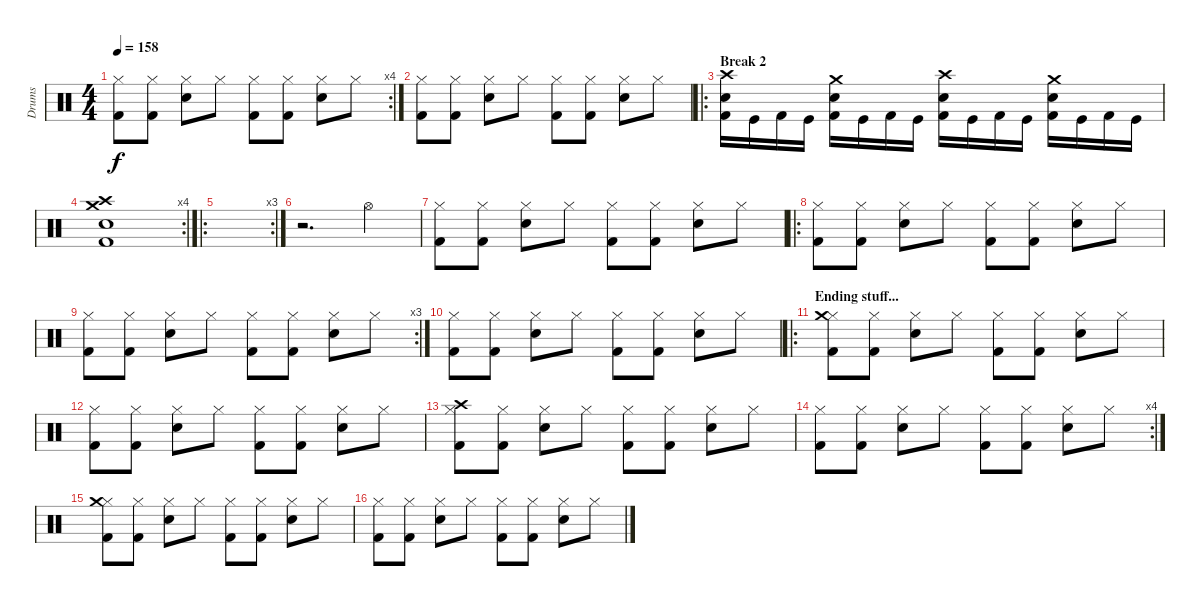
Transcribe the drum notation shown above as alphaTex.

\track ("Drums" "Drums") {instrument percussion}
\staff {score}
\articulation defaults
\rc 4
\ts (4 4)
\tempo 158
\clef neutral
\ks c
("Hi-Hat (closed)" "Kick (hit) 2").8{dy f} ("Hi-Hat (closed)" "Kick (hit) 2").8 ("Hi-Hat (closed)" "Snare (hit) 2").8 "Hi-Hat (closed)".8 ("Hi-Hat (closed)" "Kick (hit) 2").8 ("Hi-Hat (closed)" "Kick (hit) 2").8 ("Hi-Hat (closed)" "Snare (hit) 2").8 "Hi-Hat (closed)".8 |
("Hi-Hat (closed)" "Kick (hit) 2").8 ("Hi-Hat (closed)" "Kick (hit) 2").8 ("Hi-Hat (closed)" "Snare (hit) 2").8 "Hi-Hat (closed)".8 ("Hi-Hat (closed)" "Kick (hit) 2").8 ("Hi-Hat (closed)" "Kick (hit) 2").8 ("Hi-Hat (closed)" "Snare (hit) 2").8 "Hi-Hat (closed)".8 |
\ro
\section ("" "Break 2")
("Crash high (hit)" "Snare (hit) 2" "Kick (hit) 2").16 "Kick (hit)".16 "Kick (hit) 2".16 "Kick (hit)".16 ("Crash medium (hit)" "Snare (hit) 2" "Kick (hit) 2").16 "Kick (hit)".16 "Kick (hit) 2".16 "Kick (hit)".16 ("Crash high (hit)" "Snare (hit) 2" "Kick (hit) 2").16 "Kick (hit)".16 "Kick (hit) 2".16 "Kick (hit)".16 ("Crash medium (hit)" "Snare (hit) 2" "Kick (hit) 2").16 "Kick (hit)".16 "Kick (hit) 2".16 "Kick (hit)".16 |
\rc 4
("Crash high (hit)" "Crash medium (hit)" "Snare (hit) 2" "Kick (hit) 2").1 |
\ro
\rc 3
|
r.2{d} "Hi-Hat (open)".4 |
("Hi-Hat (closed)" "Kick (hit) 2").8 ("Hi-Hat (closed)" "Kick (hit) 2").8 ("Hi-Hat (closed)" "Snare (hit) 2").8 "Hi-Hat (closed)".8 ("Hi-Hat (closed)" "Kick (hit) 2").8 ("Hi-Hat (closed)" "Kick (hit) 2").8 ("Hi-Hat (closed)" "Snare (hit) 2").8 "Hi-Hat (closed)".8 |
\ro
("Hi-Hat (closed)" "Kick (hit) 2").8 ("Hi-Hat (closed)" "Kick (hit) 2").8 ("Hi-Hat (closed)" "Snare (hit) 2").8 "Hi-Hat (closed)".8 ("Hi-Hat (closed)" "Kick (hit) 2").8 ("Hi-Hat (closed)" "Kick (hit) 2").8 ("Hi-Hat (closed)" "Snare (hit) 2").8 "Hi-Hat (closed)".8 |
\rc 3
("Hi-Hat (closed)" "Kick (hit) 2").8 ("Hi-Hat (closed)" "Kick (hit) 2").8 ("Hi-Hat (closed)" "Snare (hit) 2").8 "Hi-Hat (closed)".8 ("Hi-Hat (closed)" "Kick (hit) 2").8 ("Hi-Hat (closed)" "Kick (hit) 2").8 ("Hi-Hat (closed)" "Snare (hit) 2").8 "Hi-Hat (closed)".8 |
("Hi-Hat (closed)" "Kick (hit) 2").8 ("Hi-Hat (closed)" "Kick (hit) 2").8 ("Hi-Hat (closed)" "Snare (hit) 2").8 "Hi-Hat (closed)".8 ("Hi-Hat (closed)" "Kick (hit) 2").8 ("Hi-Hat (closed)" "Kick (hit) 2").8 ("Hi-Hat (closed)" "Snare (hit) 2").8 "Hi-Hat (closed)".8 |
\ro
\section ("" "Ending stuff...")
("Hi-Hat (closed)" "Crash medium (hit)" "Kick (hit) 2").8 ("Hi-Hat (closed)" "Kick (hit) 2").8 ("Hi-Hat (closed)" "Snare (hit) 2").8 "Hi-Hat (closed)".8 ("Hi-Hat (closed)" "Kick (hit) 2").8 ("Hi-Hat (closed)" "Kick (hit) 2").8 ("Hi-Hat (closed)" "Snare (hit) 2").8 "Hi-Hat (closed)".8 |
("Hi-Hat (closed)" "Kick (hit) 2").8 ("Hi-Hat (closed)" "Kick (hit) 2").8 ("Hi-Hat (closed)" "Snare (hit) 2").8 "Hi-Hat (closed)".8 ("Hi-Hat (closed)" "Kick (hit) 2").8 ("Hi-Hat (closed)" "Kick (hit) 2").8 ("Hi-Hat (closed)" "Snare (hit) 2").8 "Hi-Hat (closed)".8 |
("Hi-Hat (closed)" "Crash high (hit)" "Kick (hit) 2").8 ("Hi-Hat (closed)" "Kick (hit) 2").8 ("Hi-Hat (closed)" "Snare (hit) 2").8 "Hi-Hat (closed)".8 ("Hi-Hat (closed)" "Kick (hit) 2").8 ("Hi-Hat (closed)" "Kick (hit) 2").8 ("Hi-Hat (closed)" "Snare (hit) 2").8 "Hi-Hat (closed)".8 |
\rc 4
("Hi-Hat (closed)" "Kick (hit) 2").8 ("Hi-Hat (closed)" "Kick (hit) 2").8 ("Hi-Hat (closed)" "Snare (hit) 2").8 "Hi-Hat (closed)".8 ("Hi-Hat (closed)" "Kick (hit) 2").8 ("Hi-Hat (closed)" "Kick (hit) 2").8 ("Hi-Hat (closed)" "Snare (hit) 2").8 "Hi-Hat (closed)".8 |
("Hi-Hat (closed)" "Crash medium (hit)" "Kick (hit) 2").8{volume 0} ("Hi-Hat (closed)" "Kick (hit) 2").8 ("Hi-Hat (closed)" "Snare (hit) 2").8 "Hi-Hat (closed)".8 ("Hi-Hat (closed)" "Kick (hit) 2").8 ("Hi-Hat (closed)" "Kick (hit) 2").8 ("Hi-Hat (closed)" "Snare (hit) 2").8 "Hi-Hat (closed)".8 |
("Hi-Hat (closed)" "Kick (hit) 2").8 ("Hi-Hat (closed)" "Kick (hit) 2").8 ("Hi-Hat (closed)" "Snare (hit) 2").8 "Hi-Hat (closed)".8 ("Hi-Hat (closed)" "Kick (hit) 2").8 ("Hi-Hat (closed)" "Kick (hit) 2").8 ("Hi-Hat (closed)" "Snare (hit) 2").8 "Hi-Hat (closed)".8
